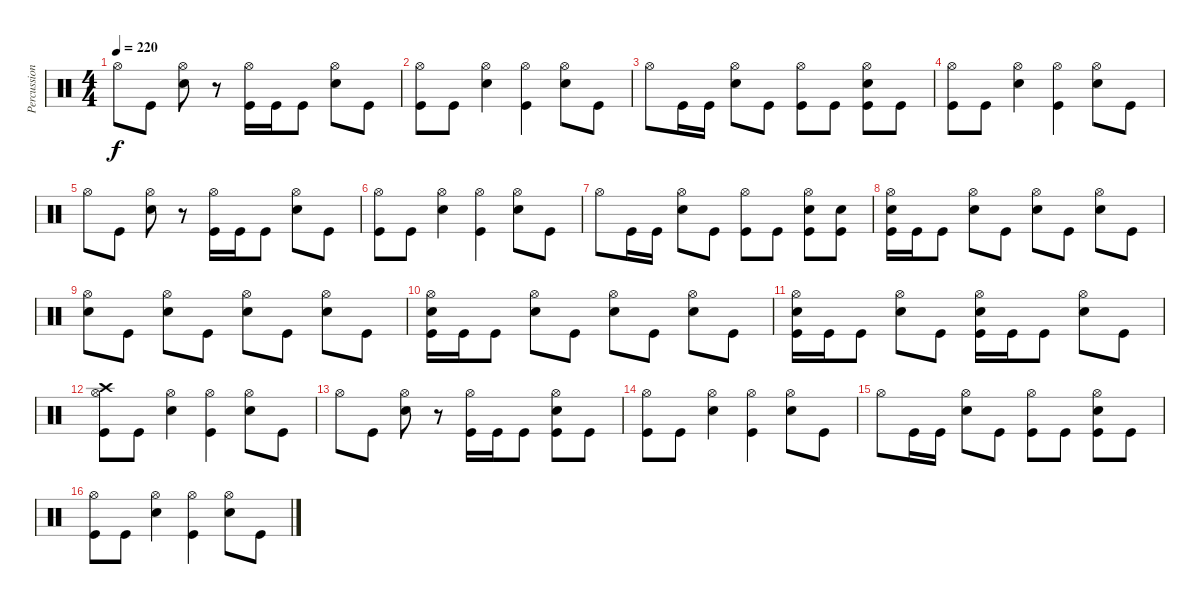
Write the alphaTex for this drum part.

\track ("Percussion" "Percussion") {instrument percussion}
\staff {score}
\articulation defaults
\ts (4 4)
\tempo 220
\clef neutral
\ks c "Hi-Hat (open)".8{dy f} "Kick (hit)".8
("Hi-Hat (open)" "Snare (hit) 2").8 r.8 ("Hi-Hat (open)" "Kick (hit)").16 "Kick (hit)".16 "Kick (hit)".8 ("Hi-Hat (open)" "Snare (hit) 2").8 "Kick (hit)".8 |
("Hi-Hat (open)" "Kick (hit)").8 "Kick (hit)".8 ("Hi-Hat (open)" "Snare (hit) 2").4 ("Hi-Hat (open)" "Kick (hit)").4 ("Hi-Hat (open)" "Snare (hit) 2").8 "Kick (hit)".8 |
"Hi-Hat (open)".8 "Kick (hit)".16 "Kick (hit)".16 ("Hi-Hat (open)" "Snare (hit) 2").8 "Kick (hit)".8 ("Hi-Hat (open)" "Kick (hit)").8 "Kick (hit)".8 ("Hi-Hat (open)" "Snare (hit) 2" "Kick (hit)").8 "Kick (hit)".8 |
("Hi-Hat (open)" "Kick (hit)").8 "Kick (hit)".8 ("Hi-Hat (open)" "Snare (hit) 2").4 ("Hi-Hat (open)" "Kick (hit)").4 ("Hi-Hat (open)" "Snare (hit) 2").8 "Kick (hit)".8 |
"Hi-Hat (open)".8 "Kick (hit)".8 ("Hi-Hat (open)" "Snare (hit) 2").8 r.8 ("Hi-Hat (open)" "Kick (hit)").16 "Kick (hit)".16 "Kick (hit)".8 ("Hi-Hat (open)" "Snare (hit) 2").8 "Kick (hit)".8 |
("Hi-Hat (open)" "Kick (hit)").8 "Kick (hit)".8 ("Hi-Hat (open)" "Snare (hit) 2").4 ("Hi-Hat (open)" "Kick (hit)").4 ("Hi-Hat (open)" "Snare (hit) 2").8 "Kick (hit)".8 |
"Hi-Hat (open)".8 "Kick (hit)".16 "Kick (hit)".16 ("Hi-Hat (open)" "Snare (hit) 2").8 "Kick (hit)".8 ("Hi-Hat (open)" "Kick (hit)").8 "Kick (hit)".8 ("Hi-Hat (open)" "Snare (hit) 2" "Kick (hit)").8 ("Snare (hit) 2" "Kick (hit)").8 |
("Hi-Hat (open)" "Snare (hit) 2" "Kick (hit)").16 "Kick (hit)".16 "Kick (hit)".8 ("Hi-Hat (open)" "Snare (hit) 2").8 "Kick (hit)".8 ("Hi-Hat (open)" "Snare (hit) 2").8 "Kick (hit)".8 ("Hi-Hat (open)" "Snare (hit) 2").8 "Kick (hit)".8 |
("Hi-Hat (open)" "Snare (hit) 2").8 "Kick (hit)".8 ("Hi-Hat (open)" "Snare (hit) 2").8 "Kick (hit)".8 ("Hi-Hat (open)" "Snare (hit) 2").8 "Kick (hit)".8 ("Hi-Hat (open)" "Snare (hit) 2").8 "Kick (hit)".8 |
("Hi-Hat (open)" "Snare (hit) 2" "Kick (hit)").16 "Kick (hit)".16 "Kick (hit)".8 ("Hi-Hat (open)" "Snare (hit) 2").8 "Kick (hit)".8 ("Hi-Hat (open)" "Snare (hit) 2").8 "Kick (hit)".8 ("Hi-Hat (open)" "Snare (hit) 2").8 "Kick (hit)".8 |
("Hi-Hat (open)" "Snare (hit) 2" "Kick (hit)").16 "Kick (hit)".16 "Kick (hit)".8 ("Hi-Hat (open)" "Snare (hit) 2").8 "Kick (hit)".8 ("Hi-Hat (open)" "Snare (hit) 2" "Kick (hit)").16 "Kick (hit)".16 "Kick (hit)".8 ("Hi-Hat (open)" "Snare (hit) 2").8 "Kick (hit)".8 |
("Hi-Hat (open)" "Crash high (hit)" "Kick (hit)").8 "Kick (hit)".8 ("Hi-Hat (open)" "Snare (hit) 2").4 ("Hi-Hat (open)" "Kick (hit)").4 ("Hi-Hat (open)" "Snare (hit) 2").8 "Kick (hit)".8 |
"Hi-Hat (open)".8 "Kick (hit)".8 ("Hi-Hat (open)" "Snare (hit) 2").8 r.8 ("Hi-Hat (open)" "Kick (hit)").16 "Kick (hit)".16 "Kick (hit)".8 ("Hi-Hat (open)" "Snare (hit) 2" "Kick (hit)").8 "Kick (hit)".8 |
("Hi-Hat (open)" "Kick (hit)").8 "Kick (hit)".8 ("Hi-Hat (open)" "Snare (hit) 2").4 ("Hi-Hat (open)" "Kick (hit)").4 ("Hi-Hat (open)" "Snare (hit) 2").8 "Kick (hit)".8 |
"Hi-Hat (open)".8 "Kick (hit)".16 "Kick (hit)".16 ("Hi-Hat (open)" "Snare (hit) 2").8 "Kick (hit)".8 ("Hi-Hat (open)" "Kick (hit)").8 "Kick (hit)".8 ("Hi-Hat (open)" "Snare (hit) 2" "Kick (hit)").8 "Kick (hit)".8 |
("Hi-Hat (open)" "Kick (hit)").8 "Kick (hit)".8 ("Hi-Hat (open)" "Snare (hit) 2").4 ("Hi-Hat (open)" "Kick (hit)").4 ("Hi-Hat (open)" "Snare (hit) 2").8 "Kick (hit)".8
